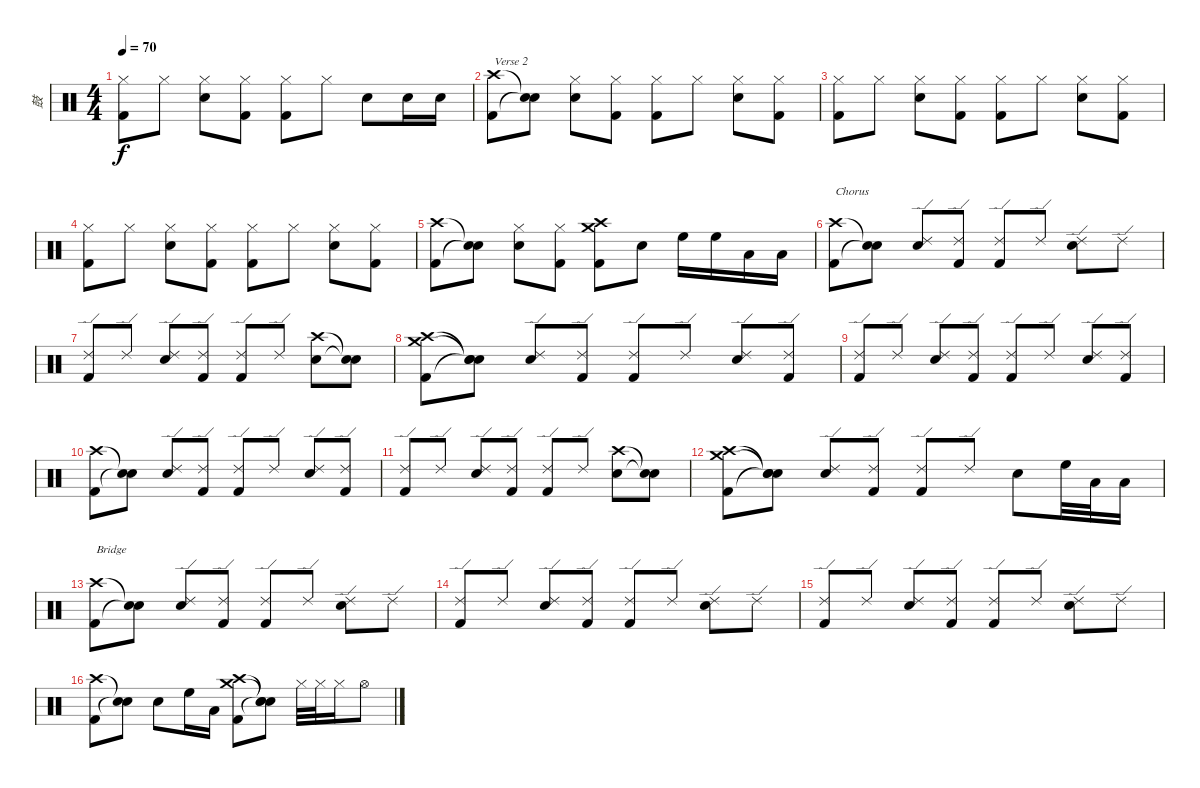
\track ("鼓" "鼓") {instrument percussion}
\staff {score}
\articulation defaults
\ts (4 4)
\tempo 70
\clef neutral
\ks c
("Hi-Hat (closed)" "Kick (hit) 2").8{dy f} "Hi-Hat (closed)".8 ("Hi-Hat (closed)" "Electric Snare (hit)").8 ("Hi-Hat (closed)" "Kick (hit) 2").8 ("Hi-Hat (closed)" "Kick (hit) 2").8 "Hi-Hat (closed)".8 "Electric Snare (hit)".8 "Electric Snare (hit)".16 "Electric Snare (hit)".16 |
("Crash high (hit)" "Kick (hit) 2").8{txt "Verse 2"} ("Snare (hit)"{t} "Snare (hit)"{t}).8 ("Hi-Hat (closed)" "Electric Snare (hit)").8 ("Hi-Hat (closed)" "Kick (hit) 2").8 ("Hi-Hat (closed)" "Kick (hit) 2").8 "Hi-Hat (closed)".8 ("Hi-Hat (closed)" "Electric Snare (hit)").8 ("Hi-Hat (closed)" "Kick (hit) 2").8 |
("Hi-Hat (closed)" "Kick (hit) 2").8 "Hi-Hat (closed)".8 ("Hi-Hat (closed)" "Electric Snare (hit)").8 ("Hi-Hat (closed)" "Kick (hit) 2").8 ("Hi-Hat (closed)" "Kick (hit) 2").8 "Hi-Hat (closed)".8 ("Hi-Hat (closed)" "Electric Snare (hit)").8 ("Hi-Hat (closed)" "Kick (hit) 2").8 |
("Hi-Hat (closed)" "Kick (hit) 2").8 "Hi-Hat (closed)".8 ("Hi-Hat (closed)" "Electric Snare (hit)").8 ("Hi-Hat (closed)" "Kick (hit) 2").8 ("Hi-Hat (closed)" "Kick (hit) 2").8 "Hi-Hat (closed)".8 ("Hi-Hat (closed)" "Electric Snare (hit)").8 ("Hi-Hat (closed)" "Kick (hit) 2").8 |
("Crash high (hit)" "Kick (hit) 2").8 ("Snare (hit)"{t} "Snare (hit)"{t}).8 ("Hi-Hat (closed)" "Electric Snare (hit)").8 ("Hi-Hat (closed)" "Kick (hit) 2").8 ("Crash high (hit)" "Crash medium (hit)" "Kick (hit) 2").8 "Electric Snare (hit)".8 "High Floor Tom (hit)".16 "High Floor Tom (hit)".16 "Low Tom (hit)".16 "Low Tom (hit)".16 |
("Crash high (hit)" "Kick (hit) 2").8{txt "Chorus"} ("Snare (hit)"{t} "Snare (hit)"{t}).8 ("Ride (edge) 2" "Electric Snare (hit)").8 ("Ride (edge) 2" "Kick (hit) 2").8 ("Ride (edge) 2" "Kick (hit) 2").8 "Ride (edge) 2".8 ("Ride (edge) 2" "Electric Snare (hit)").8 "Ride (edge) 2".8 |
("Ride (edge) 2" "Kick (hit) 2").8 "Ride (edge) 2".8 ("Ride (edge) 2" "Electric Snare (hit)").8 ("Ride (edge) 2" "Kick (hit) 2").8 ("Ride (edge) 2" "Kick (hit) 2").8 "Ride (edge) 2".8 ("Crash high (hit)" "Electric Snare (hit)").8 ("Snare (hit)"{t} "Snare (hit)"{t}).8 |
("Crash high (hit)" "Crash medium (hit)" "Kick (hit) 2").8 ("Snare (hit)"{t} "Snare (hit)"{t} "Snare (hit)"{t}).8 ("Ride (edge) 2" "Electric Snare (hit)").8 ("Ride (edge) 2" "Kick (hit) 2").8 ("Ride (edge) 2" "Kick (hit) 2").8 "Ride (edge) 2".8 ("Ride (edge) 2" "Electric Snare (hit)").8 ("Ride (edge) 2" "Kick (hit) 2").8 |
("Ride (edge) 2" "Kick (hit) 2").8 "Ride (edge) 2".8 ("Ride (edge) 2" "Electric Snare (hit)").8 ("Ride (edge) 2" "Kick (hit) 2").8 ("Ride (edge) 2" "Kick (hit) 2").8 "Ride (edge) 2".8 ("Ride (edge) 2" "Electric Snare (hit)").8 ("Ride (edge) 2" "Kick (hit) 2").8 |
("Crash high (hit)" "Kick (hit) 2").8 ("Snare (hit)"{t} "Snare (hit)"{t}).8 ("Ride (edge) 2" "Electric Snare (hit)").8 ("Ride (edge) 2" "Kick (hit) 2").8 ("Ride (edge) 2" "Kick (hit) 2").8 "Ride (edge) 2".8 ("Ride (edge) 2" "Electric Snare (hit)").8 ("Ride (edge) 2" "Kick (hit) 2").8 |
("Ride (edge) 2" "Kick (hit) 2").8 "Ride (edge) 2".8 ("Ride (edge) 2" "Electric Snare (hit)").8 ("Ride (edge) 2" "Kick (hit) 2").8 ("Ride (edge) 2" "Kick (hit) 2").8 "Ride (edge) 2".8 ("Crash high (hit)" "Electric Snare (hit)").8 ("Snare (hit)"{t} "Snare (hit)"{t}).8 |
("Crash high (hit)" "Crash medium (hit)" "Kick (hit) 2").8 ("Snare (hit)"{t} "Snare (hit)"{t} "Snare (hit)"{t}).8 ("Ride (edge) 2" "Electric Snare (hit)").8 ("Ride (edge) 2" "Kick (hit) 2").8 ("Ride (edge) 2" "Kick (hit) 2").8 "Ride (edge) 2".8 "Electric Snare (hit)".8 "High Floor Tom (hit)".32 "Low Tom (hit)".32 "Low Tom (hit)".16 |
("Crash high (hit)" "Kick (hit) 2").8{txt "Bridge"} ("Snare (hit)"{t} "Snare (hit)"{t}).8 ("Ride (edge) 2" "Electric Snare (hit)").8 ("Ride (edge) 2" "Kick (hit) 2").8 ("Ride (edge) 2" "Kick (hit) 2").8 "Ride (edge) 2".8 ("Ride (edge) 2" "Electric Snare (hit)").8 "Ride (edge) 2".8 |
("Ride (edge) 2" "Kick (hit) 2").8 "Ride (edge) 2".8 ("Ride (edge) 2" "Electric Snare (hit)").8 ("Ride (edge) 2" "Kick (hit) 2").8 ("Ride (edge) 2" "Kick (hit) 2").8 "Ride (edge) 2".8 ("Ride (edge) 2" "Electric Snare (hit)").8 "Ride (edge) 2".8 |
("Ride (edge) 2" "Kick (hit) 2").8 "Ride (edge) 2".8 ("Ride (edge) 2" "Electric Snare (hit)").8 ("Ride (edge) 2" "Kick (hit) 2").8 ("Ride (edge) 2" "Kick (hit) 2").8 "Ride (edge) 2".8 ("Ride (edge) 2" "Electric Snare (hit)").8 "Ride (edge) 2".8 |
("Crash high (hit)" "Kick (hit) 2").8 ("Snare (hit)"{t} "Snare (hit)"{t}).8 "Electric Snare (hit)".8 "High Floor Tom (hit)".16 "Low Tom (hit)".16 ("Crash high (hit)" "Crash medium (hit)" "Kick (hit) 2").8 ("Snare (hit)"{t} "Snare (hit)"{t} "Snare (hit)"{t}).8 "Hi-Hat (closed)".32 "Hi-Hat (closed)".32 "Hi-Hat (closed)".16 "Hi-Hat (open)".8
